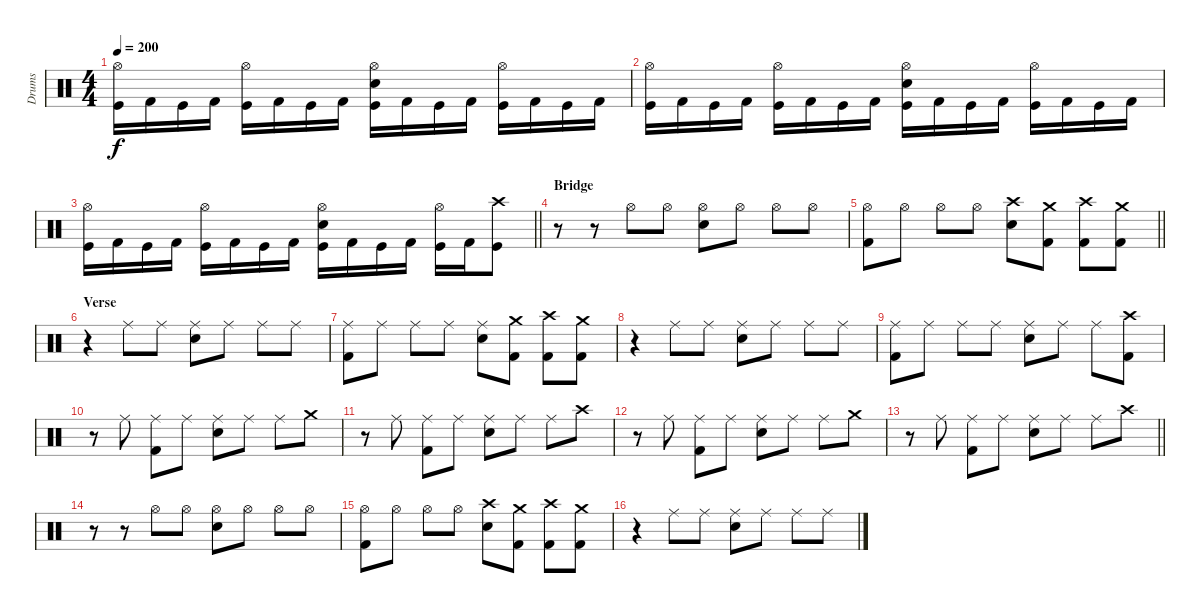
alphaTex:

\track ("Drums" "Drums") {instrument percussion}
\staff {score}
\articulation defaults
\ts (4 4)
\tempo 200
\clef neutral
\ks c
("Hi-Hat (open)" "Kick (hit)").16{dy f} "Kick (hit) 2".16 "Kick (hit)".16 "Kick (hit) 2".16 ("Hi-Hat (open)" "Kick (hit)").16 "Kick (hit) 2".16 "Kick (hit)".16 "Kick (hit) 2".16 ("Hi-Hat (open)" "Electric Snare (hit)" "Kick (hit)").16 "Kick (hit) 2".16 "Kick (hit)".16 "Kick (hit) 2".16 ("Hi-Hat (open)" "Kick (hit)").16 "Kick (hit) 2".16 "Kick (hit)".16 "Kick (hit) 2".16 |
("Hi-Hat (open)" "Kick (hit)").16 "Kick (hit) 2".16 "Kick (hit)".16 "Kick (hit) 2".16 ("Hi-Hat (open)" "Kick (hit)").16 "Kick (hit) 2".16 "Kick (hit)".16 "Kick (hit) 2".16 ("Hi-Hat (open)" "Electric Snare (hit)" "Kick (hit)").16 "Kick (hit) 2".16 "Kick (hit)".16 "Kick (hit) 2".16 ("Hi-Hat (open)" "Kick (hit)").16 "Kick (hit) 2".16 "Kick (hit)".16 "Kick (hit) 2".16 |
\barLineRight lightlight
("Hi-Hat (open)" "Kick (hit)").16 "Kick (hit) 2".16 "Kick (hit)".16 "Kick (hit) 2".16 ("Hi-Hat (open)" "Kick (hit)").16 "Kick (hit) 2".16 "Kick (hit)".16 "Kick (hit) 2".16 ("Hi-Hat (open)" "Electric Snare (hit)" "Kick (hit)").16 "Kick (hit) 2".16 "Kick (hit)".16 "Kick (hit) 2".16 ("Hi-Hat (open)" "Kick (hit)").16 "Kick (hit) 2".16 ("Crash high (hit)" "Kick (hit)").8 |
\section ("" "Bridge")
r.8 r.8 "Hi-Hat (open)".8 "Hi-Hat (open)".8 ("Hi-Hat (open)" "Electric Snare (hit)").8 "Hi-Hat (open)".8 "Hi-Hat (open)".8 "Hi-Hat (open)".8 |
\barLineRight lightlight
("Hi-Hat (open)" "Kick (hit) 2").8 "Hi-Hat (open)".8 "Hi-Hat (open)".8 "Hi-Hat (open)".8 ("Crash high (hit)" "Electric Snare (hit)").8 ("Crash medium (hit)" "Kick (hit) 2").8 ("Crash high (hit)" "Kick (hit) 2").8 ("Crash medium (hit)" "Kick (hit) 2").8 |
\section ("" "Verse")
r.4 "Ride (middle)".8 "Ride (middle)".8 ("Ride (middle)" "Electric Snare (hit)").8 "Ride (middle)".8 "Ride (middle)".8 "Ride (middle)".8 |
("Ride (middle)" "Kick (hit) 2").8 "Ride (middle)".8 "Ride (middle)".8 "Ride (middle)".8 ("Ride (middle)" "Electric Snare (hit)").8 ("Crash medium (hit)" "Kick (hit) 2").8 ("Crash high (hit)" "Kick (hit) 2").8 ("Crash medium (hit)" "Kick (hit) 2").8 |
r.4 "Ride (middle)".8 "Ride (middle)".8 ("Ride (middle)" "Electric Snare (hit)").8 "Ride (middle)".8 "Ride (middle)".8 "Ride (middle)".8 |
("Ride (middle)" "Kick (hit) 2").8 "Ride (middle)".8 "Ride (middle)".8 "Ride (middle)".8 ("Ride (middle)" "Electric Snare (hit)").8 "Ride (middle)".8 "Ride (middle)".8 ("Crash high (hit)" "Kick (hit) 2").8 |
r.8 "Ride (middle)".8 ("Ride (middle)" "Kick (hit) 2").8 "Ride (middle)".8 ("Ride (middle)" "Electric Snare (hit)").8 "Ride (middle)".8 "Ride (middle)".8 "Crash medium (hit)".8 |
r.8 "Ride (middle)".8 ("Ride (middle)" "Kick (hit) 2").8 "Ride (middle)".8 ("Ride (middle)" "Electric Snare (hit)").8 "Ride (middle)".8 "Ride (middle)".8 "Crash high (hit)".8 |
r.8 "Ride (middle)".8 ("Ride (middle)" "Kick (hit) 2").8 "Ride (middle)".8 ("Ride (middle)" "Electric Snare (hit)").8 "Ride (middle)".8 "Ride (middle)".8 "Crash medium (hit)".8 |
\barLineRight lightlight
r.8 "Ride (middle)".8 ("Ride (middle)" "Kick (hit) 2").8 "Ride (middle)".8 ("Ride (middle)" "Electric Snare (hit)").8 "Ride (middle)".8 "Ride (middle)".8 "Crash high (hit)".8 |
r.8 r.8 "Hi-Hat (open)".8 "Hi-Hat (open)".8 ("Hi-Hat (open)" "Electric Snare (hit)").8 "Hi-Hat (open)".8 "Hi-Hat (open)".8 "Hi-Hat (open)".8 |
("Hi-Hat (open)" "Kick (hit) 2").8 "Hi-Hat (open)".8 "Hi-Hat (open)".8 "Hi-Hat (open)".8 ("Crash high (hit)" "Electric Snare (hit)").8 ("Crash medium (hit)" "Kick (hit) 2").8 ("Crash high (hit)" "Kick (hit) 2").8 ("Crash medium (hit)" "Kick (hit) 2").8 |
r.4 "Ride (middle)".8 "Ride (middle)".8 ("Ride (middle)" "Electric Snare (hit)").8 "Ride (middle)".8 "Ride (middle)".8 "Ride (middle)".8
